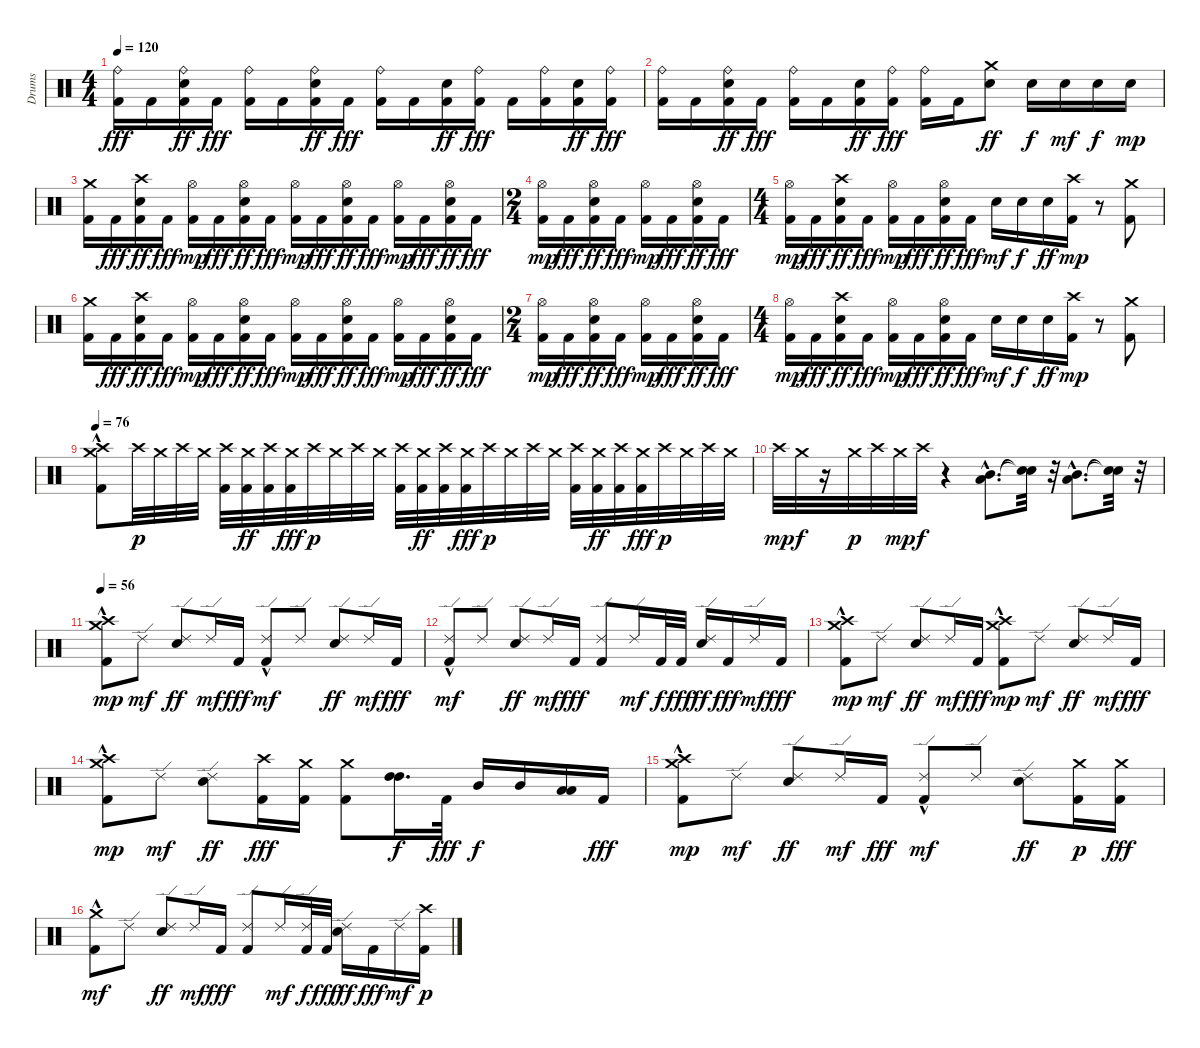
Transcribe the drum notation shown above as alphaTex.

\track ("Drums" "Drums") {instrument percussion}
\staff {score}
\articulation defaults
\ts (4 4)
\tempo 120
\clef neutral
\ks c
("Ride (bell)" "Kick (hit) 2").16{dy fff} "Kick (hit) 2".16 ("Ride (bell)" "Kick (hit) 2" "Snare (hit) 2").16{dy ff} "Kick (hit) 2".16{dy fff} ("Ride (bell)" "Kick (hit) 2").16 "Kick (hit) 2".16 ("Ride (bell)" "Kick (hit) 2" "Snare (hit) 2").16{dy ff} "Kick (hit) 2".16{dy fff} ("Ride (bell)" "Kick (hit) 2").16 "Kick (hit) 2".16 ("Kick (hit) 2" "Snare (hit) 2").16{dy ff} ("Kick (hit) 2" "Ride (bell)").16{dy fff} "Kick (hit) 2".16 ("Kick (hit) 2" "Ride (bell)").16 ("Kick (hit) 2" "Snare (hit) 2").16{dy ff} ("Kick (hit) 2" "Ride (bell)").16{dy fff} |
("Ride (bell)" "Kick (hit) 2").16 "Kick (hit) 2".16 ("Ride (bell)" "Kick (hit) 2" "Snare (hit) 2").16{dy ff} "Kick (hit) 2".16{dy fff} ("Ride (bell)" "Kick (hit) 2").16 "Kick (hit) 2".16 ("Kick (hit) 2" "Snare (hit) 2").16{dy ff} ("Kick (hit) 2" "Ride (bell)").16{dy fff} ("Ride (bell)" "Kick (hit) 2").16 "Kick (hit) 2".16 ("Crash medium (hit)" "Snare (hit) 2").8{dy ff} "Snare (hit) 2".16{dy f} "Snare (hit) 2".16{dy mf} "Snare (hit) 2".16{dy f} "Snare (hit) 2".16{dy mp} |
("Kick (hit) 2" "Crash medium (hit)").16 "Kick (hit) 2".16{dy fff} ("Kick (hit) 2" "Crash high (hit)" "Snare (hit) 2").16{dy ff} "Kick (hit) 2".16{dy fff} ("Kick (hit) 2" "Hi-Hat (open)").16{dy mp} "Kick (hit) 2".16{dy fff} ("Kick (hit) 2" "Hi-Hat (open)" "Snare (hit) 2").16{dy ff} "Kick (hit) 2".16{dy fff} ("Kick (hit) 2" "Hi-Hat (open)").16{dy mp} "Kick (hit) 2".16{dy fff} ("Kick (hit) 2" "Hi-Hat (open)" "Snare (hit) 2").16{dy ff} "Kick (hit) 2".16{dy fff} ("Kick (hit) 2" "Hi-Hat (open)").16{dy mp} "Kick (hit) 2".16{dy fff} ("Kick (hit) 2" "Hi-Hat (open)" "Snare (hit) 2").16{dy ff} "Kick (hit) 2".16{dy fff} |
\ts (2 4)
("Kick (hit) 2" "Hi-Hat (open)").16{dy mp} "Kick (hit) 2".16{dy fff} ("Kick (hit) 2" "Hi-Hat (open)" "Snare (hit) 2").16{dy ff} "Kick (hit) 2".16{dy fff} ("Kick (hit) 2" "Hi-Hat (open)").16{dy mp} "Kick (hit) 2".16{dy fff} ("Kick (hit) 2" "Hi-Hat (open)" "Snare (hit) 2").16{dy ff} "Kick (hit) 2".16{dy fff} |
\ts (4 4)
("Kick (hit) 2" "Hi-Hat (open)").16{dy mp} "Kick (hit) 2".16{dy fff} ("Kick (hit) 2" "Crash high (hit)" "Snare (hit) 2").16{dy ff} "Kick (hit) 2".16{dy fff} ("Kick (hit) 2" "Hi-Hat (open)").16{dy mp} "Kick (hit) 2".16{dy fff} ("Kick (hit) 2" "Hi-Hat (open)" "Snare (hit) 2").16{dy ff} "Kick (hit) 2".16{dy fff} "Snare (hit) 2".16{dy mf} "Snare (hit) 2".16{dy f} "Snare (hit) 2".16{dy ff} ("Kick (hit) 2" "Crash high (hit)").16{dy mp} r.8 ("Kick (hit) 2" "Crash medium (hit)").8 |
("Kick (hit) 2" "Crash medium (hit)").16 "Kick (hit) 2".16{dy fff} ("Kick (hit) 2" "Crash high (hit)" "Snare (hit) 2").16{dy ff} "Kick (hit) 2".16{dy fff} ("Kick (hit) 2" "Hi-Hat (open)").16{dy mp} "Kick (hit) 2".16{dy fff} ("Kick (hit) 2" "Hi-Hat (open)" "Snare (hit) 2").16{dy ff} "Kick (hit) 2".16{dy fff} ("Kick (hit) 2" "Hi-Hat (open)").16{dy mp} "Kick (hit) 2".16{dy fff} ("Kick (hit) 2" "Hi-Hat (open)" "Snare (hit) 2").16{dy ff} "Kick (hit) 2".16{dy fff} ("Kick (hit) 2" "Hi-Hat (open)").16{dy mp} "Kick (hit) 2".16{dy fff} ("Kick (hit) 2" "Hi-Hat (open)" "Snare (hit) 2").16{dy ff} "Kick (hit) 2".16{dy fff} |
\ts (2 4)
("Kick (hit) 2" "Hi-Hat (open)").16{dy mp} "Kick (hit) 2".16{dy fff} ("Kick (hit) 2" "Hi-Hat (open)" "Snare (hit) 2").16{dy ff} "Kick (hit) 2".16{dy fff} ("Kick (hit) 2" "Hi-Hat (open)").16{dy mp} "Kick (hit) 2".16{dy fff} ("Kick (hit) 2" "Hi-Hat (open)" "Snare (hit) 2").16{dy ff} "Kick (hit) 2".16{dy fff} |
\ts (4 4)
("Kick (hit) 2" "Hi-Hat (open)").16{dy mp} "Kick (hit) 2".16{dy fff} ("Kick (hit) 2" "Crash high (hit)" "Snare (hit) 2").16{dy ff} "Kick (hit) 2".16{dy fff} ("Kick (hit) 2" "Hi-Hat (open)").16{dy mp} "Kick (hit) 2".16{dy fff} ("Kick (hit) 2" "Hi-Hat (open)" "Snare (hit) 2").16{dy ff} "Kick (hit) 2".16{dy fff} "Snare (hit) 2".16{dy mf} "Snare (hit) 2".16{dy f} "Snare (hit) 2".16{dy ff} ("Kick (hit) 2" "Crash high (hit)").16{dy mp} r.8 ("Kick (hit) 2" "Crash medium (hit)").8 |
\tempo 76
("Kick (hit) 2"{hac} "Crash high (hit)" "Crash medium (hit)").8 "Crash high (hit)".32{dy p} "Crash medium (hit)".32 "Crash high (hit)".32 "Crash medium (hit)".32 ("Crash high (hit)" "Kick (hit) 2").32 ("Crash medium (hit)" "Kick (hit) 2").32{dy ff} ("Crash high (hit)" "Kick (hit) 2").32 ("Crash medium (hit)" "Kick (hit) 2").32{dy fff} "Crash high (hit)".32{dy p} "Crash medium (hit)".32 "Crash high (hit)".32 "Crash medium (hit)".32 ("Crash high (hit)" "Kick (hit) 2").32 ("Crash medium (hit)" "Kick (hit) 2").32{dy ff} ("Crash high (hit)" "Kick (hit) 2").32 ("Crash medium (hit)" "Kick (hit) 2").32{dy fff} "Crash high (hit)".32{dy p} "Crash medium (hit)".32 "Crash high (hit)".32 "Crash medium (hit)".32 ("Crash high (hit)" "Kick (hit) 2").32 ("Crash medium (hit)" "Kick (hit) 2").32{dy ff} ("Crash high (hit)" "Kick (hit) 2").32 ("Crash medium (hit)" "Kick (hit) 2").32{dy fff} "Crash high (hit)".32{dy p} "Crash medium (hit)".32 "Crash high (hit)".32 "Crash medium (hit)".32 |
"Crash high (hit)".32{dy mp} "Crash medium (hit)".32{dy f} r.16 "Crash medium (hit)".32{dy p} "Crash high (hit)".32 "Crash medium (hit)".32{dy mp} "Crash high (hit)".32{dy f} r.4 ("Low Tom (hit)"{hac} "Mid Tom (hit)"{hac}).8{d} ("Snare (hit)"{t} "Snare (hit)"{t}).32 r.32 ("Low Tom (hit)"{hac} "Mid Tom (hit)"{hac}).8{d} ("Snare (hit)"{t} "Snare (hit)"{t}).32 r.32 |
\tempo 56
("Kick (hit) 2"{hac} "Crash medium (hit)" "Crash high (hit)"{hac}).8{dy mp} "Ride (edge) 2".8{dy mf} ("Ride (edge) 2" "Snare (hit) 2").8{dy ff} "Ride (edge) 2".16{dy mf} "Kick (hit) 2".16{dy fff} ("Kick (hit) 2"{hac} "Ride (edge) 2").8{dy mf} "Ride (edge) 2".8 ("Ride (edge) 2" "Snare (hit) 2").8{dy ff} "Ride (edge) 2".16{dy mf} "Kick (hit) 2".16{dy fff} |
("Kick (hit) 2"{hac} "Ride (edge) 2").8{dy mf} "Ride (edge) 2".8 ("Ride (edge) 2" "Snare (hit) 2").8{dy ff} "Ride (edge) 2".16{dy mf} "Kick (hit) 2".16{dy fff} ("Ride (edge) 2" "Kick (hit) 2").8 "Ride (edge) 2".16{dy mf} "Kick (hit) 2".32{dy f} "Kick (hit) 2".32{dy fff} ("Ride (edge) 2" "Snare (hit) 2").16{dy ff} "Kick (hit) 2".16{dy fff} "Ride (edge) 2".16{dy mf} "Kick (hit) 2".16{dy fff} |
("Kick (hit) 2"{hac} "Crash medium (hit)" "Crash high (hit)").8{dy mp} "Ride (edge) 2".8{dy mf} ("Ride (edge) 2" "Snare (hit) 2").8{dy ff} "Ride (edge) 2".16{dy mf} "Kick (hit) 2".16{dy fff} ("Kick (hit) 2"{hac} "Crash high (hit)" "Crash medium (hit)"{hac}).8{dy mp} "Ride (edge) 2".8{dy mf} ("Ride (edge) 2" "Snare (hit) 2").8{dy ff} "Ride (edge) 2".16{dy mf} "Kick (hit) 2".16{dy fff} |
("Kick (hit) 2"{hac} "Crash high (hit)" "Crash medium (hit)"{hac}).8{dy mp} "Ride (edge) 2".8{dy mf} ("Ride (edge) 2" "Snare (hit) 2").8{dy ff} ("Crash high (hit)" "Kick (hit) 2").16{dy fff} ("Crash medium (hit)" "Kick (hit) 2").16 ("Crash medium (hit)" "Kick (hit) 2").8 ("High Tom (hit)" "High Tom (hit)").16{d dy f} "Kick (hit) 2".32{dy fff} "Mid Tom (hit)".16{dy f} "Mid Tom (hit)".16 ("Low Tom (hit)" "Low Tom (hit)").16 "Kick (hit) 2".16{dy fff} |
("Kick (hit) 2"{hac} "Crash medium (hit)" "Crash high (hit)"{hac}).8{dy mp} "Ride (edge) 2".8{dy mf} ("Ride (edge) 2" "Snare (hit) 2").8{dy ff} "Ride (edge) 2".16{dy mf} "Kick (hit) 2".16{dy fff} ("Kick (hit) 2"{hac} "Ride (edge) 2").8{dy mf} "Ride (edge) 2".8 ("Ride (edge) 2" "Snare (hit) 2").8{dy ff} ("Crash medium (hit)" "Kick (hit) 2").16{dy p} ("Crash medium (hit)" "Kick (hit) 2").16{dy fff} |
("Kick (hit) 2"{hac} "Crash medium (hit)").8{dy mf} "Ride (edge) 2".8 ("Ride (edge) 2" "Snare (hit) 2").8{dy ff} "Ride (edge) 2".16{dy mf} "Kick (hit) 2".16{dy fff} ("Ride (edge) 2" "Kick (hit) 2").8 "Ride (edge) 2".16{dy mf} ("Kick (hit) 2" "Ride (edge) 2").32{dy f} "Kick (hit) 2".32{dy fff} ("Ride (edge) 2" "Snare (hit) 2").16{dy ff} "Kick (hit) 2".16{dy fff} "Ride (edge) 2".16{dy mf} ("Kick (hit) 2" "Crash high (hit)").16{dy p}
